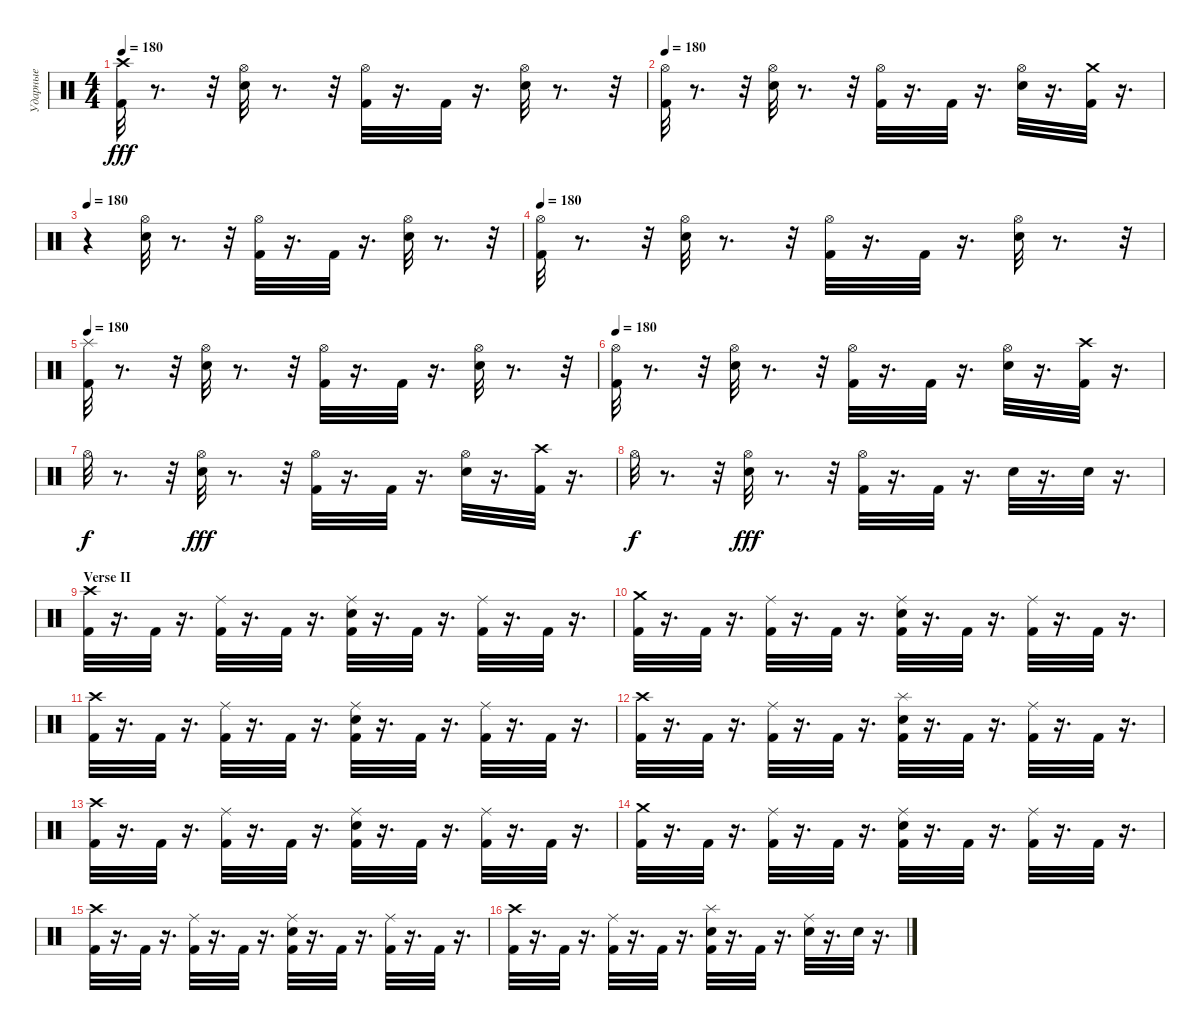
\track ("Ударные" "Ударные") {instrument percussion}
\staff {score}
\articulation defaults
\ts (4 4)
\tempo 180
\clef neutral
\ks c
("Kick (hit) 2" "Crash high (hit)").32{dy fff} r.8{d} r.32 ("Snare (hit) 2" "Hi-Hat (open)").32 r.8{d} r.32 ("Hi-Hat (open)" "Kick (hit) 2").32 r.16{d} "Kick (hit) 2".32 r.16{d} ("Hi-Hat (open)" "Snare (hit) 2").32 r.8{d} r.32 |
\tempo 180
("Hi-Hat (open)" "Kick (hit) 2").32 r.8{d} r.32 ("Hi-Hat (open)" "Snare (hit) 2").32 r.8{d} r.32 ("Kick (hit) 2" "Hi-Hat (open)").32 r.16{d} "Kick (hit) 2".32 r.16{d} ("Hi-Hat (open)" "Snare (hit) 2").32 r.16{d} ("Crash medium (hit)" "Kick (hit) 2").32 r.16{d} |
\tempo 180
r.4 ("Snare (hit) 2" "Hi-Hat (open)").32 r.8{d} r.32 ("Hi-Hat (open)" "Kick (hit) 2").32 r.16{d} "Kick (hit) 2".32 r.16{d} ("Hi-Hat (open)" "Snare (hit) 2").32 r.8{d} r.32 |
\tempo 180
("Hi-Hat (open)" "Kick (hit) 2").32 r.8{d} r.32 ("Snare (hit) 2" "Hi-Hat (open)").32 r.8{d} r.32 ("Kick (hit) 2" "Hi-Hat (open)").32 r.16{d} "Kick (hit) 2".32 r.16{d} ("Hi-Hat (open)" "Snare (hit) 2").32 r.8{d} r.32 |
\tempo 180
("Kick (hit) 2" "Splash (hit)").32 r.8{d} r.32 ("Snare (hit) 2" "Hi-Hat (open)").32 r.8{d} r.32 ("Kick (hit) 2" "Hi-Hat (open)").32 r.16{d} "Kick (hit) 2".32 r.16{d} ("Hi-Hat (open)" "Snare (hit) 2").32 r.8{d} r.32 |
\tempo 180
("Kick (hit) 2" "Hi-Hat (open)").32 r.8{d} r.32 ("Snare (hit) 2" "Hi-Hat (open)").32 r.8{d} r.32 ("Kick (hit) 2" "Hi-Hat (open)").32 r.16{d} "Kick (hit) 2".32 r.16{d} ("Hi-Hat (open)" "Snare (hit) 2").32 r.16{d} ("Crash high (hit)" "Kick (hit) 2").32 r.16{d} |
"Hi-Hat (open)".32{dy f} r.8{d} r.32 ("Snare (hit) 2" "Hi-Hat (open)").32{dy fff} r.8{d} r.32 ("Hi-Hat (open)" "Kick (hit) 2").32 r.16{d} "Kick (hit) 2".32 r.16{d} ("Snare (hit) 2" "Hi-Hat (open)").32 r.16{d} ("Crash high (hit)" "Kick (hit) 2").32 r.16{d} |
"Hi-Hat (open)".32{dy f} r.8{d} r.32 ("Snare (hit) 2" "Hi-Hat (open)").32{dy fff} r.8{d} r.32 ("Kick (hit) 2" "Hi-Hat (open)").32 r.16{d} "Kick (hit) 2".32 r.16{d} "Snare (hit) 2".32 r.16{d} "Snare (hit) 2".32 r.16{d} |
\section ("" "Verse II")
("Crash high (hit)" "Kick (hit) 2").32 r.16{d} "Kick (hit) 2".32 r.16{d} ("Ride (middle)" "Kick (hit) 2").32 r.16{d} "Kick (hit) 2".32 r.16{d} ("Snare (hit) 2" "Ride (middle)" "Kick (hit) 2").32 r.16{d} "Kick (hit) 2".32 r.16{d} ("Ride (middle)" "Kick (hit) 2").32 r.16{d} "Kick (hit) 2".32 r.16{d} |
("Crash medium (hit)" "Kick (hit) 2").32 r.16{d} "Kick (hit) 2".32 r.16{d} ("Ride (middle)" "Kick (hit) 2").32 r.16{d} "Kick (hit) 2".32 r.16{d} ("Snare (hit) 2" "Kick (hit) 2" "Ride (middle)").32 r.16{d} "Kick (hit) 2".32 r.16{d} ("Ride (middle)" "Kick (hit) 2").32 r.16{d} "Kick (hit) 2".32 r.16{d} |
("Kick (hit) 2" "Crash high (hit)").32 r.16{d} "Kick (hit) 2".32 r.16{d} ("Kick (hit) 2" "Ride (middle)").32 r.16{d} "Kick (hit) 2".32 r.16{d} ("Kick (hit) 2" "Snare (hit) 2" "Ride (middle)").32 r.16{d} "Kick (hit) 2".32 r.16{d} ("Ride (middle)" "Kick (hit) 2").32 r.16{d} "Kick (hit) 2".32 r.16{d} |
("Kick (hit) 2" "Crash high (hit)").32 r.16{d} "Kick (hit) 2".32 r.16{d} ("Kick (hit) 2" "Ride (middle)").32 r.16{d} "Kick (hit) 2".32 r.16{d} ("Kick (hit) 2" "Splash (hit)" "Snare (hit) 2").32 r.16{d} "Kick (hit) 2".32 r.16{d} ("Kick (hit) 2" "Ride (middle)").32 r.16{d} "Kick (hit) 2".32 r.16{d} |
("Crash high (hit)" "Kick (hit) 2").32 r.16{d} "Kick (hit) 2".32 r.16{d} ("Kick (hit) 2" "Ride (middle)").32 r.16{d} "Kick (hit) 2".32 r.16{d} ("Snare (hit) 2" "Ride (middle)" "Kick (hit) 2").32 r.16{d} "Kick (hit) 2".32 r.16{d} ("Kick (hit) 2" "Ride (middle)").32 r.16{d} "Kick (hit) 2".32 r.16{d} |
("Crash medium (hit)" "Kick (hit) 2").32 r.16{d} "Kick (hit) 2".32 r.16{d} ("Kick (hit) 2" "Ride (middle)").32 r.16{d} "Kick (hit) 2".32 r.16{d} ("Kick (hit) 2" "Snare (hit) 2" "Ride (middle)").32 r.16{d} "Kick (hit) 2".32 r.16{d} ("Ride (middle)" "Kick (hit) 2").32 r.16{d} "Kick (hit) 2".32 r.16{d} |
("Kick (hit) 2" "Crash high (hit)").32 r.16{d} "Kick (hit) 2".32 r.16{d} ("Ride (middle)" "Kick (hit) 2").32 r.16{d} "Kick (hit) 2".32 r.16{d} ("Kick (hit) 2" "Snare (hit) 2" "Ride (middle)").32 r.16{d} "Kick (hit) 2".32 r.16{d} ("Ride (middle)" "Kick (hit) 2").32 r.16{d} "Kick (hit) 2".32 r.16{d} |
("Crash high (hit)" "Kick (hit) 2").32 r.16{d} "Kick (hit) 2".32 r.16{d} ("Kick (hit) 2" "Ride (middle)").32 r.16{d} "Kick (hit) 2".32 r.16{d} ("Kick (hit) 2" "Splash (hit)" "Snare (hit) 2").32 r.16{d} "Kick (hit) 2".32 r.16{d} ("Snare (hit) 2" "Ride (middle)").32 r.16{d} "Snare (hit) 2".32 r.16{d}
